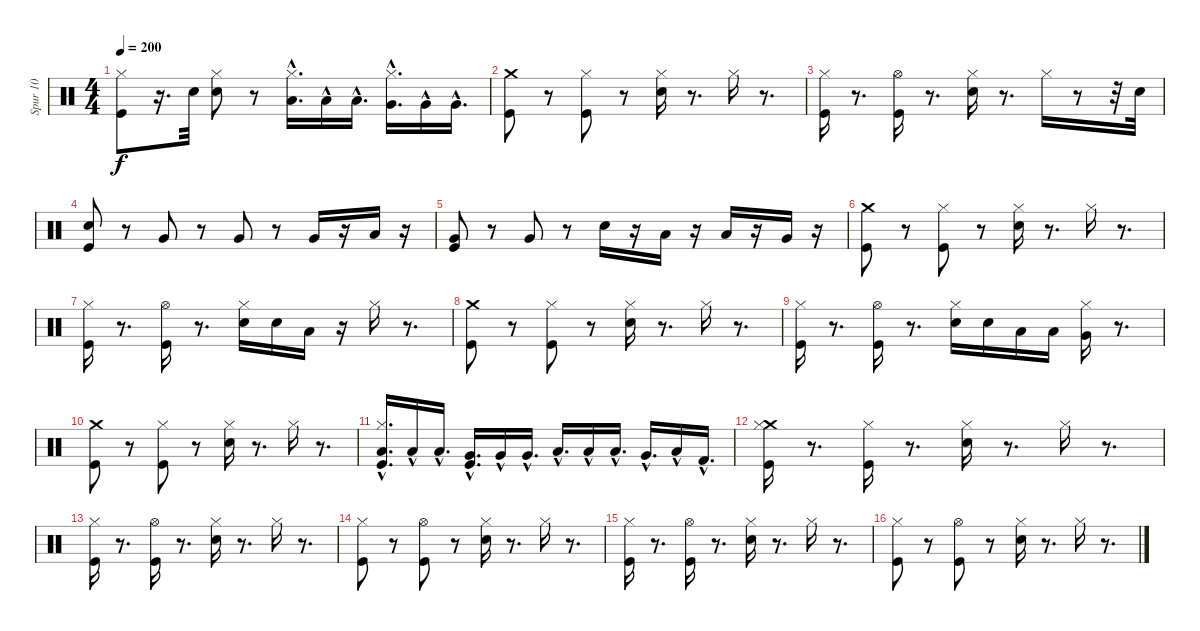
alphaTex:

\track ("Spur 10" "Spur 10") {instrument percussion}
\staff {score}
\articulation defaults
\ts (4 4)
\tempo 200
\clef neutral
\ks c
("Kick (hit)" "Hi-Hat (closed)").8{dy f} r.16{d} "Snare (hit) 2".32 ("Snare (hit) 2" "Hi-Hat (closed)").8 r.8 ("Low Floor Tom (hit)"{hac} "Hi-Hat (closed)").16{d} "Low Floor Tom (hit)"{hac}.16 "Low Floor Tom (hit)"{hac}.16{d} ("Very Low Tom (hit)"{hac} "Hi-Hat (closed)").16{d} "Very Low Tom (hit)"{hac}.16 "Very Low Tom (hit)"{hac}.16{d} |
("Crash medium (hit)" "Kick (hit)").8 r.8 ("Kick (hit)" "Hi-Hat (closed)").8 r.8 ("Snare (hit) 2" "Hi-Hat (closed)").16 r.8{d} "Hi-Hat (closed)".16 r.8{d} |
("Kick (hit)" "Hi-Hat (closed)").16 r.8{d} ("Kick (hit)" "Hi-Hat (open)").16 r.8{d} ("Snare (hit) 2" "Hi-Hat (closed)").16 r.8{d} "Hi-Hat (closed)".16 r.8 r.32 "Snare (hit) 2".32 |
("Kick (hit)" "Snare (hit) 2").8 r.8 "Very Low Tom (hit)".8 r.8 "Very Low Tom (hit)".8 r.8 "Very Low Tom (hit)".16 r.16 "Low Tom (hit)".16 r.16 |
("Very Low Tom (hit)" "Kick (hit)").8 r.8 "Very Low Tom (hit)".8 r.8 "Snare (hit) 2".16 r.16 "Low Tom (hit)".16 r.16 "Low Tom (hit)".16 r.16 "Very Low Tom (hit)".16 r.16 |
("Crash medium (hit)" "Kick (hit)").8 r.8 ("Kick (hit)" "Hi-Hat (closed)").8 r.8 ("Snare (hit) 2" "Hi-Hat (closed)").16 r.8{d} "Hi-Hat (closed)".16 r.8{d} |
("Kick (hit)" "Hi-Hat (closed)").16 r.8{d} ("Kick (hit)" "Hi-Hat (open)").16 r.8{d} ("Snare (hit) 2" "Hi-Hat (closed)").16 "Snare (hit) 2".16 "Low Tom (hit)".16 r.16 "Hi-Hat (closed)".16 r.8{d} |
("Crash medium (hit)" "Kick (hit)").8 r.8 ("Kick (hit)" "Hi-Hat (closed)").8 r.8 ("Snare (hit) 2" "Hi-Hat (closed)").16 r.8{d} "Hi-Hat (closed)".16 r.8{d} |
("Kick (hit)" "Hi-Hat (closed)").16 r.8{d} ("Kick (hit)" "Hi-Hat (open)").16 r.8{d} ("Snare (hit) 2" "Hi-Hat (closed)").16 "Snare (hit) 2".16 "Low Tom (hit)".16 "Low Tom (hit)".16 ("Very Low Tom (hit)" "Hi-Hat (closed)").16 r.8{d} |
("Crash medium (hit)" "Kick (hit)").8 r.8 ("Kick (hit)" "Hi-Hat (closed)").8 r.8 ("Snare (hit) 2" "Hi-Hat (closed)").16 r.8{d} "Hi-Hat (closed)".16 r.8{d} |
("Low Floor Tom (hit)"{hac} "Kick (hit)" "Hi-Hat (closed)").16{d} "Low Floor Tom (hit)"{hac}.16 "Low Floor Tom (hit)"{hac}.16{d} ("Very Low Tom (hit)"{hac} "Kick (hit)").16{d} "Very Low Tom (hit)"{hac}.16 "Very Low Tom (hit)"{hac}.16{d} "Low Tom (hit)"{hac}.16{d} "Low Tom (hit)"{hac}.16 "Low Tom (hit)"{hac}.16{d} "Very Low Tom (hit)"{hac}.16{d} "Low Floor Tom (hit)"{hac}.16 "Kick (hit) 2"{hac}.16{d} |
("Kick (hit)" "Crash medium (hit)" "Hi-Hat (closed)").16 r.8{d} ("Kick (hit)" "Hi-Hat (closed)").16 r.8{d} ("Snare (hit) 2" "Hi-Hat (closed)").16 r.8{d} "Hi-Hat (closed)".16 r.8{d} |
("Kick (hit)" "Hi-Hat (closed)").16 r.8{d} ("Kick (hit)" "Hi-Hat (open)").16 r.8{d} ("Snare (hit) 2" "Hi-Hat (closed)").16 r.8{d} "Hi-Hat (closed)".16 r.8{d} |
("Hi-Hat (closed)" "Kick (hit)").8 r.8 ("Kick (hit)" "Hi-Hat (open)").8 r.8 ("Snare (hit) 2" "Hi-Hat (closed)").16 r.8{d} "Hi-Hat (closed)".16 r.8{d} |
("Kick (hit)" "Hi-Hat (closed)").16 r.8{d} ("Kick (hit)" "Hi-Hat (open)").16 r.8{d} ("Snare (hit) 2" "Hi-Hat (closed)").16 r.8{d} "Hi-Hat (closed)".16 r.8{d} |
("Hi-Hat (closed)" "Kick (hit)").8 r.8 ("Kick (hit)" "Hi-Hat (open)").8 r.8 ("Snare (hit) 2" "Hi-Hat (closed)").16 r.8{d} "Hi-Hat (closed)".16 r.8{d}
